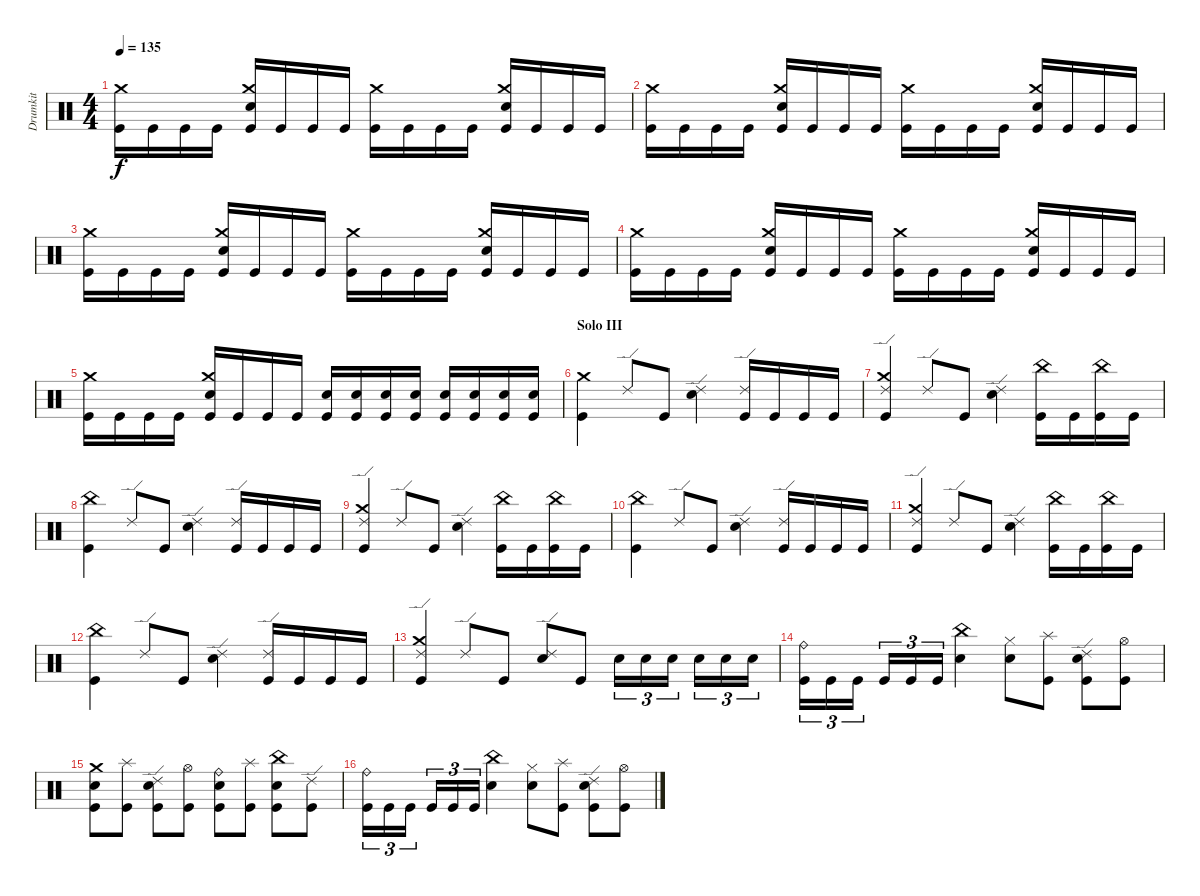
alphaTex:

\track ("Drumkit" "Drumkit") {instrument percussion}
\staff {score}
\articulation defaults
\ts (4 4)
\tempo 135
\clef neutral
\ks c
("Kick (hit)" "Crash medium (hit)").16{dy f} "Kick (hit)".16 "Kick (hit)".16 "Kick (hit)".16 ("Snare (hit) 2" "Crash medium (hit)" "Kick (hit)").16 "Kick (hit)".16 "Kick (hit)".16 "Kick (hit)".16 ("Kick (hit)" "Crash medium (hit)").16 "Kick (hit)".16 "Kick (hit)".16 "Kick (hit)".16 ("Snare (hit) 2" "Crash medium (hit)" "Kick (hit)").16 "Kick (hit)".16 "Kick (hit)".16 "Kick (hit)".16 |
("Kick (hit)" "Crash medium (hit)").16 "Kick (hit)".16 "Kick (hit)".16 "Kick (hit)".16 ("Snare (hit) 2" "Crash medium (hit)" "Kick (hit)").16 "Kick (hit)".16 "Kick (hit)".16 "Kick (hit)".16 ("Kick (hit)" "Crash medium (hit)").16 "Kick (hit)".16 "Kick (hit)".16 "Kick (hit)".16 ("Snare (hit) 2" "Crash medium (hit)" "Kick (hit)").16 "Kick (hit)".16 "Kick (hit)".16 "Kick (hit)".16 |
("Kick (hit)" "Crash medium (hit)").16 "Kick (hit)".16 "Kick (hit)".16 "Kick (hit)".16 ("Snare (hit) 2" "Crash medium (hit)" "Kick (hit)").16 "Kick (hit)".16 "Kick (hit)".16 "Kick (hit)".16 ("Kick (hit)" "Crash medium (hit)").16 "Kick (hit)".16 "Kick (hit)".16 "Kick (hit)".16 ("Snare (hit) 2" "Crash medium (hit)" "Kick (hit)").16 "Kick (hit)".16 "Kick (hit)".16 "Kick (hit)".16 |
("Kick (hit)" "Crash medium (hit)").16 "Kick (hit)".16 "Kick (hit)".16 "Kick (hit)".16 ("Snare (hit) 2" "Crash medium (hit)" "Kick (hit)").16 "Kick (hit)".16 "Kick (hit)".16 "Kick (hit)".16 ("Kick (hit)" "Crash medium (hit)").16 "Kick (hit)".16 "Kick (hit)".16 "Kick (hit)".16 ("Snare (hit) 2" "Crash medium (hit)" "Kick (hit)").16 "Kick (hit)".16 "Kick (hit)".16 "Kick (hit)".16 |
("Kick (hit)" "Crash medium (hit)").16 "Kick (hit)".16 "Kick (hit)".16 "Kick (hit)".16 ("Snare (hit) 2" "Crash medium (hit)" "Kick (hit)").16 "Kick (hit)".16 "Kick (hit)".16 "Kick (hit)".16 ("Kick (hit)" "Snare (hit) 2").16 ("Snare (hit) 2" "Kick (hit)").16 ("Snare (hit) 2" "Kick (hit)").16 ("Snare (hit) 2" "Kick (hit)").16 ("Snare (hit) 2" "Kick (hit)").16 ("Snare (hit) 2" "Kick (hit)").16 ("Snare (hit) 2" "Kick (hit)").16 ("Snare (hit) 2" "Kick (hit)").16 |
\section ("" "Solo III")
("Crash medium (hit)" "Kick (hit)").4 "Ride (edge) 2".8 "Kick (hit)".8 ("Snare (hit) 2" "Ride (edge) 2").4 ("Kick (hit)" "Ride (edge) 2").16 "Kick (hit)".16 "Kick (hit)".16 "Kick (hit)".16 |
("Kick (hit)" "Crash medium (hit)" "Ride (edge) 2").4 "Ride (edge) 2".8 "Kick (hit)".8 ("Snare (hit) 2" "Ride (edge) 2").4 ("Kick (hit)" "China (hit)").16 "Kick (hit)".16 ("Kick (hit)" "China (hit)").16 "Kick (hit)".16 |
("Kick (hit)" "China (hit)").4 "Ride (edge) 2".8 "Kick (hit)".8 ("Snare (hit) 2" "Ride (edge) 2").4 ("Kick (hit)" "Ride (edge) 2").16 "Kick (hit)".16 "Kick (hit)".16 "Kick (hit)".16 |
("Kick (hit)" "Crash medium (hit)" "Ride (edge) 2").4 "Ride (edge) 2".8 "Kick (hit)".8 ("Snare (hit) 2" "Ride (edge) 2").4 ("Kick (hit)" "China (hit)").16 "Kick (hit)".16 ("Kick (hit)" "China (hit)").16 "Kick (hit)".16 |
("Kick (hit)" "China (hit)").4 "Ride (edge) 2".8 "Kick (hit)".8 ("Snare (hit) 2" "Ride (edge) 2").4 ("Kick (hit)" "Ride (edge) 2").16 "Kick (hit)".16 "Kick (hit)".16 "Kick (hit)".16 |
("Kick (hit)" "Crash medium (hit)" "Ride (edge) 2").4 "Ride (edge) 2".8 "Kick (hit)".8 ("Snare (hit) 2" "Ride (edge) 2").4 ("Kick (hit)" "China (hit)").16 "Kick (hit)".16 ("Kick (hit)" "China (hit)").16 "Kick (hit)".16 |
("Kick (hit)" "China (hit)").4 "Ride (edge) 2".8 "Kick (hit)".8 ("Snare (hit) 2" "Ride (edge) 2").4 ("Kick (hit)" "Ride (edge) 2").16 "Kick (hit)".16 "Kick (hit)".16 "Kick (hit)".16 |
("Kick (hit)" "Crash medium (hit)" "Ride (edge) 2").4 "Ride (edge) 2".8 "Kick (hit)".8 ("Snare (hit) 2" "Ride (edge) 2").8 "Kick (hit)".8 "Snare (hit) 2".16{tu (3 2)} "Snare (hit) 2".16{tu (3 2)} "Snare (hit) 2".16{tu (3 2)} "Snare (hit) 2".16{tu (3 2)} "Snare (hit) 2".16{tu (3 2)} "Snare (hit) 2".16{tu (3 2)} |
("Kick (hit)" "Ride (bell)").16{tu (3 2)} "Kick (hit)".16{tu (3 2)} "Kick (hit)".16{tu (3 2)} "Kick (hit)".16{tu (3 2)} "Kick (hit)".16{tu (3 2)} "Kick (hit)".16{tu (3 2)} ("Snare (hit) 2" "China (hit)").4 ("Hi-Hat (closed)" "Snare (hit) 2").8 ("Kick (hit)" "Splash (hit)").8 ("Kick (hit)" "Ride (edge) 2" "Snare (hit) 2").8 ("Kick (hit)" "Hi-Hat (open)").8 |
("Kick (hit)" "Crash medium (hit)" "Snare (hit) 2").8 ("Kick (hit)" "Splash (hit)").8 ("Kick (hit)" "Ride (edge) 2" "Snare (hit) 2").8 ("Hi-Hat (open)" "Kick (hit)").8 ("Ride (bell)" "Kick (hit)" "Snare (hit) 2").8 ("Kick (hit)" "Splash (hit)").8 ("Kick (hit)" "China (hit)" "Snare (hit) 2").8 ("Kick (hit)" "Ride (edge) 2").8 |
("Kick (hit)" "Ride (bell)").16{tu (3 2)} "Kick (hit)".16{tu (3 2)} "Kick (hit)".16{tu (3 2)} "Kick (hit)".16{tu (3 2)} "Kick (hit)".16{tu (3 2)} "Kick (hit)".16{tu (3 2)} ("Snare (hit) 2" "China (hit)").4 ("Hi-Hat (closed)" "Snare (hit) 2").8 ("Kick (hit)" "Splash (hit)").8 ("Kick (hit)" "Ride (edge) 2" "Snare (hit) 2").8 ("Kick (hit)" "Hi-Hat (open)").8
